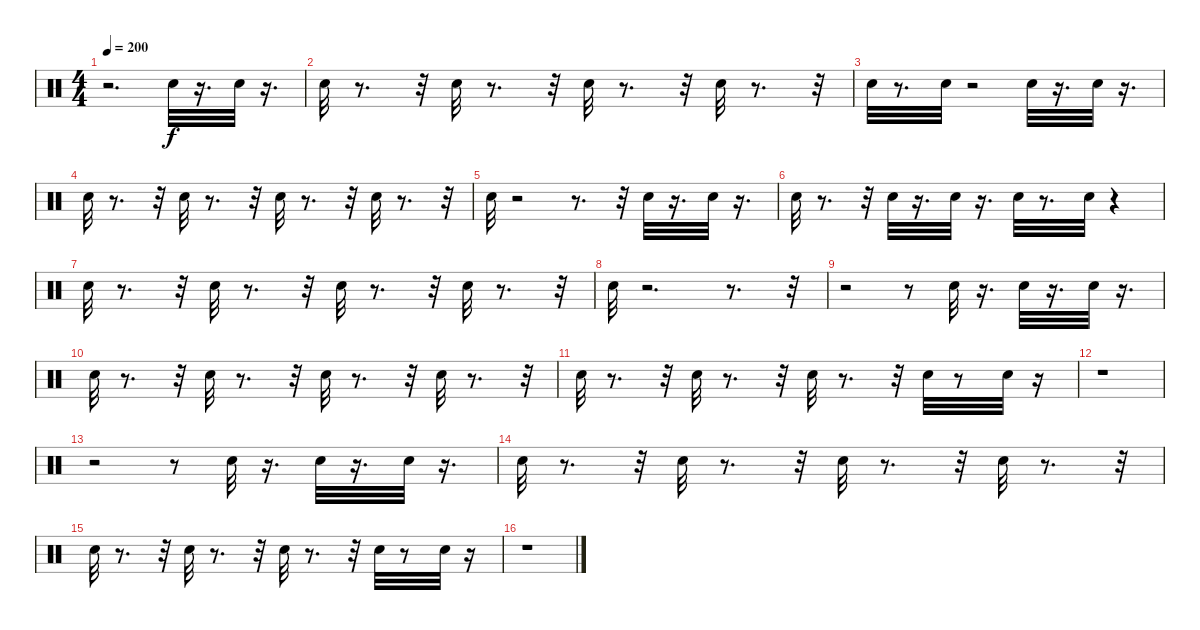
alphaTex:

\track "" {instrument percussion}
\staff {score}
\articulation defaults
\ts (4 4)
\tempo 200
\clef neutral
\ks c
r.2{d dy f} "Snare (hit)".32 r.16{d} "Snare (hit)".32 r.16{d} |
"Snare (hit)".32 r.8{d} r.32 "Snare (hit)".32 r.8{d} r.32 "Snare (hit)".32 r.8{d} r.32 "Snare (hit)".32 r.8{d} r.32 |
"Snare (hit)".32 r.8{d} "Snare (hit)".32 r.2 "Snare (hit)".32 r.16{d} "Snare (hit)".32 r.16{d} |
"Snare (hit)".32 r.8{d} r.32 "Snare (hit)".32 r.8{d} r.32 "Snare (hit)".32 r.8{d} r.32 "Snare (hit)".32 r.8{d} r.32 |
"Snare (hit)".32 r.2 r.8{d} r.32 "Snare (hit)".32 r.16{d} "Snare (hit)".32 r.16{d} |
"Snare (hit)".32 r.8{d} r.32 "Snare (hit)".32 r.16{d} "Snare (hit)".32 r.16{d} "Snare (hit)".32 r.8{d} "Snare (hit)".32 r.4 |
"Snare (hit)".32 r.8{d} r.32 "Snare (hit)".32 r.8{d} r.32 "Snare (hit)".32 r.8{d} r.32 "Snare (hit)".32 r.8{d} r.32 |
"Snare (hit)".32 r.2{d} r.8{d} r.32 |
r.2 r.8 "Snare (hit)".32 r.16{d} "Snare (hit)".32 r.16{d} "Snare (hit)".32 r.16{d} |
"Snare (hit)".32 r.8{d} r.32 "Snare (hit)".32 r.8{d} r.32 "Snare (hit)".32 r.8{d} r.32 "Snare (hit)".32 r.8{d} r.32 |
"Snare (hit)".32 r.8{d} r.32 "Snare (hit)".32 r.8{d} r.32 "Snare (hit)".32 r.8{d} r.32 "Snare (hit)".32 r.8 "Snare (hit)".32 r.16 |
r.1 |
r.2 r.8 "Snare (hit)".32 r.16{d} "Snare (hit)".32 r.16{d} "Snare (hit)".32 r.16{d} |
"Snare (hit)".32 r.8{d} r.32 "Snare (hit)".32 r.8{d} r.32 "Snare (hit)".32 r.8{d} r.32 "Snare (hit)".32 r.8{d} r.32 |
"Snare (hit)".32 r.8{d} r.32 "Snare (hit)".32 r.8{d} r.32 "Snare (hit)".32 r.8{d} r.32 "Snare (hit)".32 r.8 "Snare (hit)".32 r.16 |
r.1
